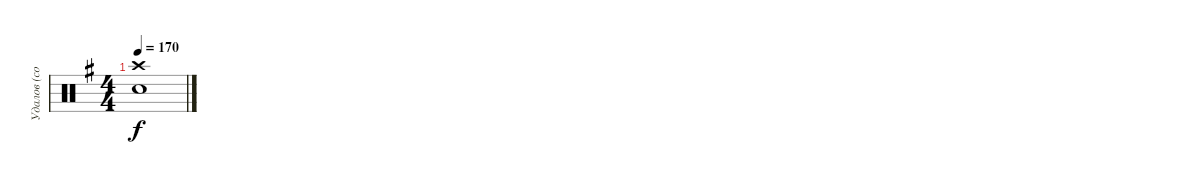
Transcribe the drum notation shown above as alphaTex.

\track ("Удалов (сорри за ударные)" "Удалов (со") {instrument percussion}
\staff {score}
\articulation defaults
\ts (4 4)
\tempo 170
\clef neutral
\ks g
("Crash high (hit)" "Snare (hit) 2").1{dy f}
